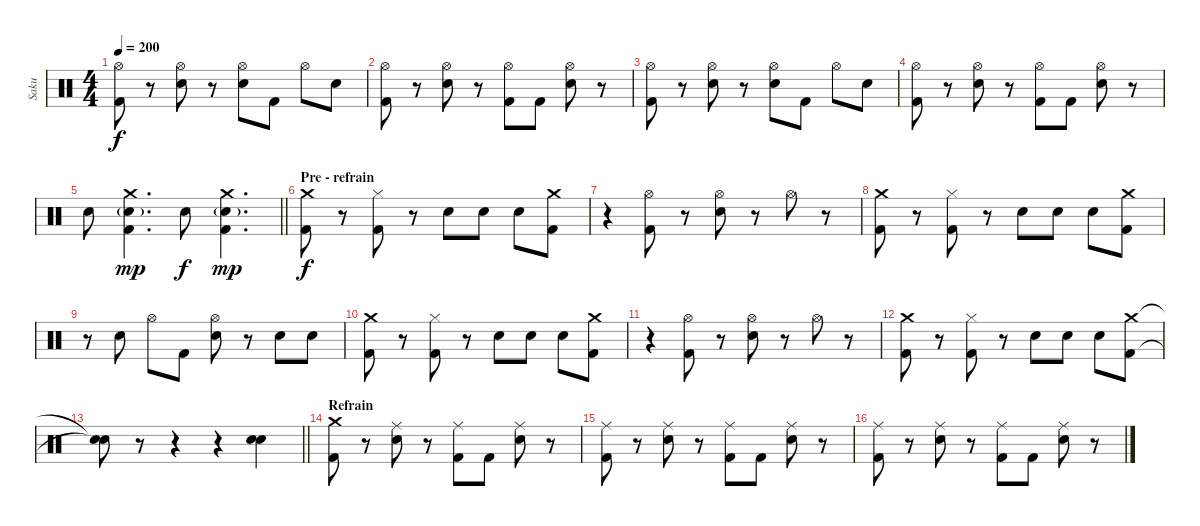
\track ("Saku" "Saku") {instrument percussion}
\staff {score}
\articulation defaults
\ts (4 4)
\tempo 200
\clef neutral
\ks c
("Hi-Hat (open)" "Kick (hit) 2").8{dy f} r.8 ("Hi-Hat (open)" "Electric Snare (hit)").8 r.8 ("Hi-Hat (open)" "Electric Snare (hit)").8 "Kick (hit) 2".8 "Hi-Hat (open)".8 "Electric Snare (hit)".8 |
("Hi-Hat (open)" "Kick (hit) 2").8 r.8 ("Hi-Hat (open)" "Electric Snare (hit)").8 r.8 ("Hi-Hat (open)" "Kick (hit) 2").8 "Kick (hit) 2".8 ("Hi-Hat (open)" "Electric Snare (hit)").8 r.8 |
("Hi-Hat (open)" "Kick (hit) 2").8 r.8 ("Hi-Hat (open)" "Electric Snare (hit)").8 r.8 ("Hi-Hat (open)" "Electric Snare (hit)").8 "Kick (hit) 2".8 "Hi-Hat (open)".8 "Electric Snare (hit)".8 |
("Hi-Hat (open)" "Kick (hit) 2").8 r.8 ("Hi-Hat (open)" "Electric Snare (hit)").8 r.8 ("Hi-Hat (open)" "Kick (hit) 2").8 "Kick (hit) 2".8 ("Hi-Hat (open)" "Electric Snare (hit)").8 r.8 |
\barLineRight lightlight "Electric Snare (hit)".8
("Crash medium (hit)" "Electric Snare (hit)"{g} "Kick (hit) 2").4{d dy mp} "Electric Snare (hit)".8{dy f} ("Crash medium (hit)" "Electric Snare (hit)"{g} "Kick (hit) 2").4{d dy mp} |
\section ("" "Pre - refrain")
("Crash medium (hit)" "Kick (hit) 2").8{dy f} r.8 ("Hi-Hat (closed)" "Kick (hit) 2").8 r.8 "Electric Snare (hit)".8 "Electric Snare (hit)".8 "Electric Snare (hit)".8 ("Crash medium (hit)" "Kick (hit) 2").8 |
r.4 ("Hi-Hat (open)" "Kick (hit) 2").8 r.8 ("Hi-Hat (open)" "Electric Snare (hit)").8 r.8 "Hi-Hat (open)".8 r.8 |
("Crash medium (hit)" "Kick (hit) 2").8 r.8 ("Hi-Hat (closed)" "Kick (hit) 2").8 r.8 "Electric Snare (hit)".8 "Electric Snare (hit)".8 "Electric Snare (hit)".8 ("Crash medium (hit)" "Kick (hit) 2").8 |
r.8 "Electric Snare (hit)".8 "Hi-Hat (open)".8 "Kick (hit) 2".8 ("Hi-Hat (open)" "Electric Snare (hit)").8 r.8 "Electric Snare (hit)".8 "Electric Snare (hit)".8 |
("Crash medium (hit)" "Kick (hit) 2").8 r.8 ("Hi-Hat (closed)" "Kick (hit) 2").8 r.8 "Electric Snare (hit)".8 "Electric Snare (hit)".8 "Electric Snare (hit)".8 ("Crash medium (hit)" "Kick (hit) 2").8 |
r.4 ("Hi-Hat (open)" "Kick (hit) 2").8 r.8 ("Hi-Hat (open)" "Electric Snare (hit)").8 r.8 "Hi-Hat (open)".8 r.8 |
("Crash medium (hit)" "Kick (hit) 2").8 r.8 ("Hi-Hat (closed)" "Kick (hit) 2").8 r.8 "Electric Snare (hit)".8 "Electric Snare (hit)".8 "Electric Snare (hit)".8 ("Crash medium (hit)" "Kick (hit) 2").8 |
\barLineRight lightlight
("Snare (hit)"{t} "Snare (hit)"{t}).8 r.8 r.4 r.4 ("Electric Snare (hit)" "Electric Snare (hit)").4{bu 120} |
\section ("" "Refrain")
("Crash medium (hit)" "Kick (hit) 2").8 r.8 ("Ride (middle)" "Electric Snare (hit)").8 r.8 ("Ride (middle)" "Kick (hit) 2").8 "Kick (hit) 2".8 ("Ride (middle)" "Electric Snare (hit)").8 r.8 |
("Ride (middle)" "Kick (hit) 2").8 r.8 ("Ride (middle)" "Electric Snare (hit)").8 r.8 ("Ride (middle)" "Kick (hit) 2").8 "Kick (hit) 2".8 ("Ride (middle)" "Electric Snare (hit)").8 r.8 |
("Ride (middle)" "Kick (hit) 2").8 r.8 ("Ride (middle)" "Electric Snare (hit)").8 r.8 ("Ride (middle)" "Kick (hit) 2").8 "Kick (hit) 2".8 ("Ride (middle)" "Electric Snare (hit)").8 r.8
